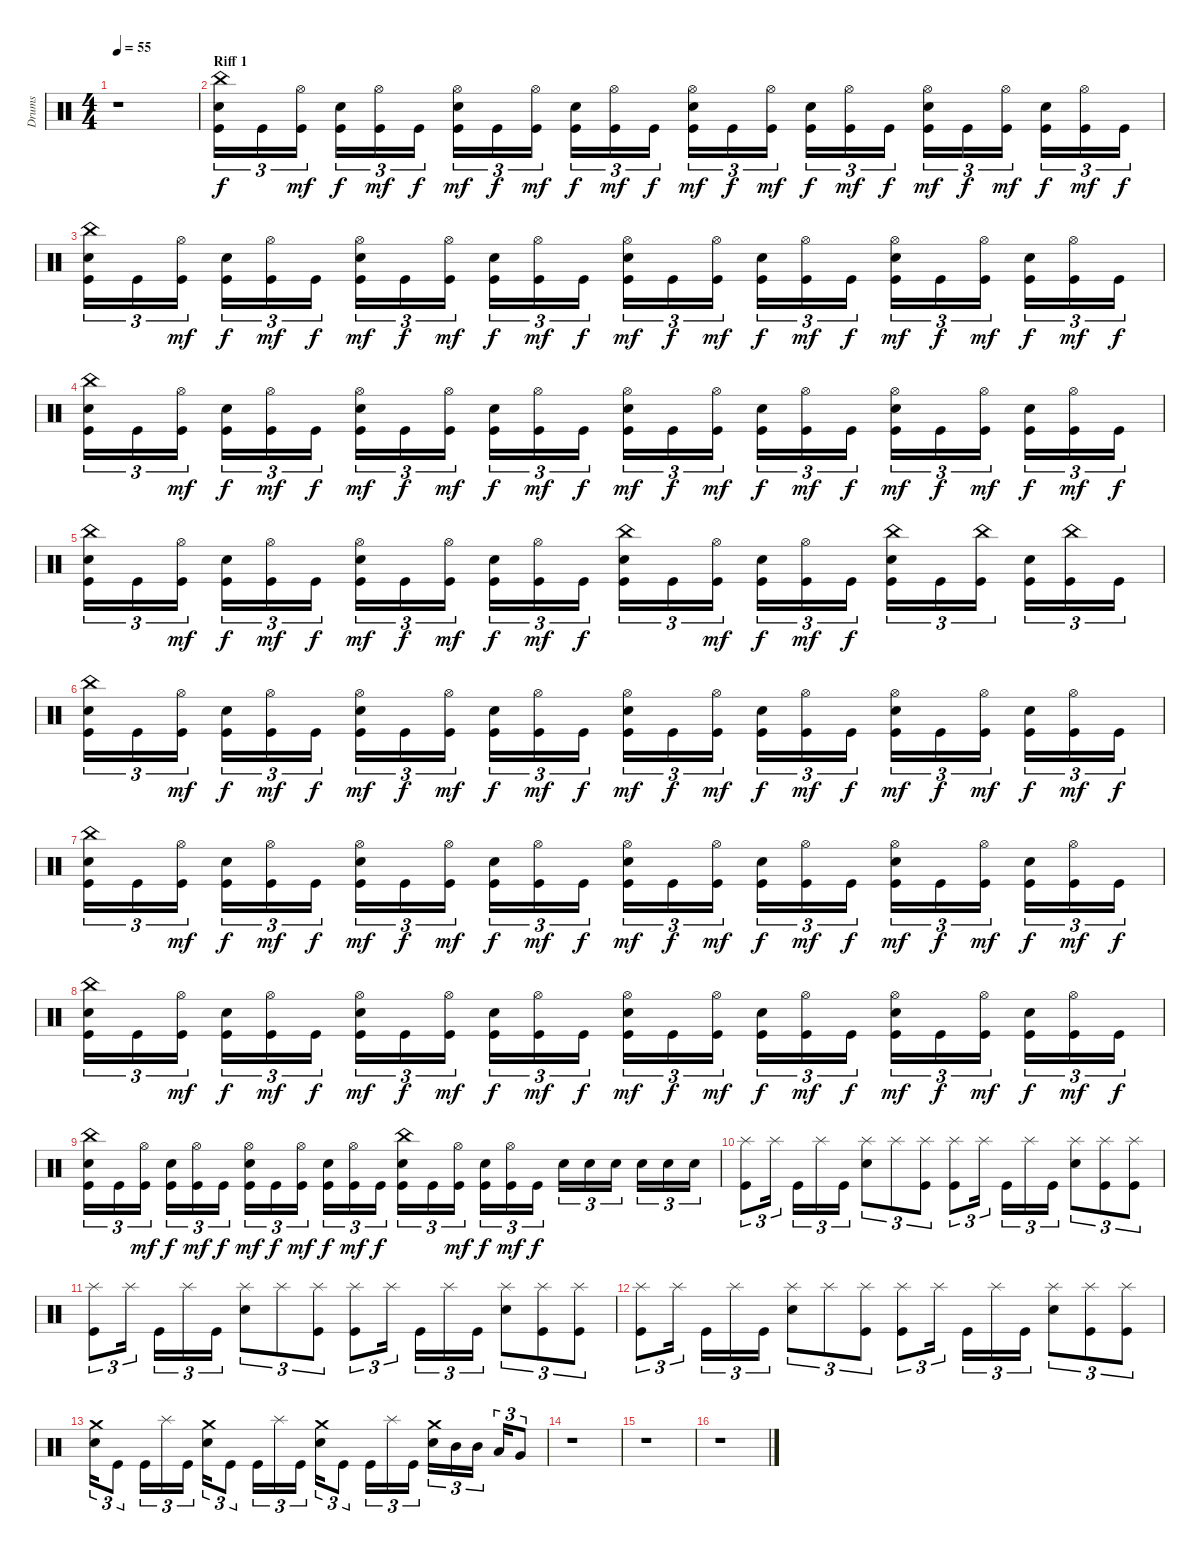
\track ("Drums" "Drums") {instrument percussion}
\staff {score}
\articulation defaults
\ts (4 4)
\tempo 55
\clef neutral
\ks c
r.1{dy f} |
\section ("" "Riff 1")
("China (hit)" "Electric Snare (hit)" "Kick (hit)").16{tu (3 2)} "Kick (hit)".16{tu (3 2)} ("Hi-Hat (open)" "Kick (hit)").16{tu (3 2) dy mf} ("Electric Snare (hit)" "Kick (hit)").16{tu (3 2) dy f} ("Hi-Hat (open)" "Kick (hit)").16{tu (3 2) dy mf} "Kick (hit)".16{tu (3 2) dy f} ("Hi-Hat (open)" "Electric Snare (hit)" "Kick (hit)").16{tu (3 2) dy mf} "Kick (hit)".16{tu (3 2) dy f} ("Hi-Hat (open)" "Kick (hit)").16{tu (3 2) dy mf} ("Electric Snare (hit)" "Kick (hit)").16{tu (3 2) dy f} ("Hi-Hat (open)" "Kick (hit)").16{tu (3 2) dy mf} "Kick (hit)".16{tu (3 2) dy f} ("Hi-Hat (open)" "Electric Snare (hit)" "Kick (hit)").16{tu (3 2) dy mf} "Kick (hit)".16{tu (3 2) dy f} ("Hi-Hat (open)" "Kick (hit)").16{tu (3 2) dy mf} ("Electric Snare (hit)" "Kick (hit)").16{tu (3 2) dy f} ("Hi-Hat (open)" "Kick (hit)").16{tu (3 2) dy mf} "Kick (hit)".16{tu (3 2) dy f} ("Hi-Hat (open)" "Electric Snare (hit)" "Kick (hit)").16{tu (3 2) dy mf} "Kick (hit)".16{tu (3 2) dy f} ("Hi-Hat (open)" "Kick (hit)").16{tu (3 2) dy mf} ("Electric Snare (hit)" "Kick (hit)").16{tu (3 2) dy f} ("Hi-Hat (open)" "Kick (hit)").16{tu (3 2) dy mf} "Kick (hit)".16{tu (3 2) dy f} |
("China (hit)" "Electric Snare (hit)" "Kick (hit)").16{tu (3 2)} "Kick (hit)".16{tu (3 2)} ("Hi-Hat (open)" "Kick (hit)").16{tu (3 2) dy mf} ("Electric Snare (hit)" "Kick (hit)").16{tu (3 2) dy f} ("Hi-Hat (open)" "Kick (hit)").16{tu (3 2) dy mf} "Kick (hit)".16{tu (3 2) dy f} ("Hi-Hat (open)" "Electric Snare (hit)" "Kick (hit)").16{tu (3 2) dy mf} "Kick (hit)".16{tu (3 2) dy f} ("Hi-Hat (open)" "Kick (hit)").16{tu (3 2) dy mf} ("Electric Snare (hit)" "Kick (hit)").16{tu (3 2) dy f} ("Hi-Hat (open)" "Kick (hit)").16{tu (3 2) dy mf} "Kick (hit)".16{tu (3 2) dy f} ("Hi-Hat (open)" "Electric Snare (hit)" "Kick (hit)").16{tu (3 2) dy mf} "Kick (hit)".16{tu (3 2) dy f} ("Hi-Hat (open)" "Kick (hit)").16{tu (3 2) dy mf} ("Electric Snare (hit)" "Kick (hit)").16{tu (3 2) dy f} ("Hi-Hat (open)" "Kick (hit)").16{tu (3 2) dy mf} "Kick (hit)".16{tu (3 2) dy f} ("Hi-Hat (open)" "Electric Snare (hit)" "Kick (hit)").16{tu (3 2) dy mf} "Kick (hit)".16{tu (3 2) dy f} ("Hi-Hat (open)" "Kick (hit)").16{tu (3 2) dy mf} ("Electric Snare (hit)" "Kick (hit)").16{tu (3 2) dy f} ("Hi-Hat (open)" "Kick (hit)").16{tu (3 2) dy mf} "Kick (hit)".16{tu (3 2) dy f} |
("China (hit)" "Electric Snare (hit)" "Kick (hit)").16{tu (3 2)} "Kick (hit)".16{tu (3 2)} ("Hi-Hat (open)" "Kick (hit)").16{tu (3 2) dy mf} ("Electric Snare (hit)" "Kick (hit)").16{tu (3 2) dy f} ("Hi-Hat (open)" "Kick (hit)").16{tu (3 2) dy mf} "Kick (hit)".16{tu (3 2) dy f} ("Hi-Hat (open)" "Electric Snare (hit)" "Kick (hit)").16{tu (3 2) dy mf} "Kick (hit)".16{tu (3 2) dy f} ("Hi-Hat (open)" "Kick (hit)").16{tu (3 2) dy mf} ("Electric Snare (hit)" "Kick (hit)").16{tu (3 2) dy f} ("Hi-Hat (open)" "Kick (hit)").16{tu (3 2) dy mf} "Kick (hit)".16{tu (3 2) dy f} ("Hi-Hat (open)" "Electric Snare (hit)" "Kick (hit)").16{tu (3 2) dy mf} "Kick (hit)".16{tu (3 2) dy f} ("Hi-Hat (open)" "Kick (hit)").16{tu (3 2) dy mf} ("Electric Snare (hit)" "Kick (hit)").16{tu (3 2) dy f} ("Hi-Hat (open)" "Kick (hit)").16{tu (3 2) dy mf} "Kick (hit)".16{tu (3 2) dy f} ("Hi-Hat (open)" "Electric Snare (hit)" "Kick (hit)").16{tu (3 2) dy mf} "Kick (hit)".16{tu (3 2) dy f} ("Hi-Hat (open)" "Kick (hit)").16{tu (3 2) dy mf} ("Electric Snare (hit)" "Kick (hit)").16{tu (3 2) dy f} ("Hi-Hat (open)" "Kick (hit)").16{tu (3 2) dy mf} "Kick (hit)".16{tu (3 2) dy f} |
("China (hit)" "Electric Snare (hit)" "Kick (hit)").16{tu (3 2)} "Kick (hit)".16{tu (3 2)} ("Hi-Hat (open)" "Kick (hit)").16{tu (3 2) dy mf} ("Electric Snare (hit)" "Kick (hit)").16{tu (3 2) dy f} ("Hi-Hat (open)" "Kick (hit)").16{tu (3 2) dy mf} "Kick (hit)".16{tu (3 2) dy f} ("Hi-Hat (open)" "Electric Snare (hit)" "Kick (hit)").16{tu (3 2) dy mf} "Kick (hit)".16{tu (3 2) dy f} ("Hi-Hat (open)" "Kick (hit)").16{tu (3 2) dy mf} ("Electric Snare (hit)" "Kick (hit)").16{tu (3 2) dy f} ("Hi-Hat (open)" "Kick (hit)").16{tu (3 2) dy mf} "Kick (hit)".16{tu (3 2) dy f} ("China (hit)" "Electric Snare (hit)" "Kick (hit)").16{tu (3 2)} "Kick (hit)".16{tu (3 2)} ("Hi-Hat (open)" "Kick (hit)").16{tu (3 2) dy mf} ("Electric Snare (hit)" "Kick (hit)").16{tu (3 2) dy f} ("Hi-Hat (open)" "Kick (hit)").16{tu (3 2) dy mf} "Kick (hit)".16{tu (3 2) dy f} ("China (hit)" "Electric Snare (hit)" "Kick (hit)").16{tu (3 2)} "Kick (hit)".16{tu (3 2)} ("China (hit)" "Kick (hit)").16{tu (3 2)} ("Electric Snare (hit)" "Kick (hit)").16{tu (3 2)} ("China (hit)" "Kick (hit)").16{tu (3 2)} "Kick (hit)".16{tu (3 2)} |
("China (hit)" "Electric Snare (hit)" "Kick (hit)").16{tu (3 2)} "Kick (hit)".16{tu (3 2)} ("Hi-Hat (open)" "Kick (hit)").16{tu (3 2) dy mf} ("Electric Snare (hit)" "Kick (hit)").16{tu (3 2) dy f} ("Hi-Hat (open)" "Kick (hit)").16{tu (3 2) dy mf} "Kick (hit)".16{tu (3 2) dy f} ("Hi-Hat (open)" "Electric Snare (hit)" "Kick (hit)").16{tu (3 2) dy mf} "Kick (hit)".16{tu (3 2) dy f} ("Hi-Hat (open)" "Kick (hit)").16{tu (3 2) dy mf} ("Electric Snare (hit)" "Kick (hit)").16{tu (3 2) dy f} ("Hi-Hat (open)" "Kick (hit)").16{tu (3 2) dy mf} "Kick (hit)".16{tu (3 2) dy f} ("Hi-Hat (open)" "Electric Snare (hit)" "Kick (hit)").16{tu (3 2) dy mf} "Kick (hit)".16{tu (3 2) dy f} ("Hi-Hat (open)" "Kick (hit)").16{tu (3 2) dy mf} ("Electric Snare (hit)" "Kick (hit)").16{tu (3 2) dy f} ("Hi-Hat (open)" "Kick (hit)").16{tu (3 2) dy mf} "Kick (hit)".16{tu (3 2) dy f} ("Hi-Hat (open)" "Electric Snare (hit)" "Kick (hit)").16{tu (3 2) dy mf} "Kick (hit)".16{tu (3 2) dy f} ("Hi-Hat (open)" "Kick (hit)").16{tu (3 2) dy mf} ("Electric Snare (hit)" "Kick (hit)").16{tu (3 2) dy f} ("Hi-Hat (open)" "Kick (hit)").16{tu (3 2) dy mf} "Kick (hit)".16{tu (3 2) dy f} |
("China (hit)" "Electric Snare (hit)" "Kick (hit)").16{tu (3 2)} "Kick (hit)".16{tu (3 2)} ("Hi-Hat (open)" "Kick (hit)").16{tu (3 2) dy mf} ("Electric Snare (hit)" "Kick (hit)").16{tu (3 2) dy f} ("Hi-Hat (open)" "Kick (hit)").16{tu (3 2) dy mf} "Kick (hit)".16{tu (3 2) dy f} ("Hi-Hat (open)" "Electric Snare (hit)" "Kick (hit)").16{tu (3 2) dy mf} "Kick (hit)".16{tu (3 2) dy f} ("Hi-Hat (open)" "Kick (hit)").16{tu (3 2) dy mf} ("Electric Snare (hit)" "Kick (hit)").16{tu (3 2) dy f} ("Hi-Hat (open)" "Kick (hit)").16{tu (3 2) dy mf} "Kick (hit)".16{tu (3 2) dy f} ("Hi-Hat (open)" "Electric Snare (hit)" "Kick (hit)").16{tu (3 2) dy mf} "Kick (hit)".16{tu (3 2) dy f} ("Hi-Hat (open)" "Kick (hit)").16{tu (3 2) dy mf} ("Electric Snare (hit)" "Kick (hit)").16{tu (3 2) dy f} ("Hi-Hat (open)" "Kick (hit)").16{tu (3 2) dy mf} "Kick (hit)".16{tu (3 2) dy f} ("Hi-Hat (open)" "Electric Snare (hit)" "Kick (hit)").16{tu (3 2) dy mf} "Kick (hit)".16{tu (3 2) dy f} ("Hi-Hat (open)" "Kick (hit)").16{tu (3 2) dy mf} ("Electric Snare (hit)" "Kick (hit)").16{tu (3 2) dy f} ("Hi-Hat (open)" "Kick (hit)").16{tu (3 2) dy mf} "Kick (hit)".16{tu (3 2) dy f} |
("China (hit)" "Electric Snare (hit)" "Kick (hit)").16{tu (3 2)} "Kick (hit)".16{tu (3 2)} ("Hi-Hat (open)" "Kick (hit)").16{tu (3 2) dy mf} ("Electric Snare (hit)" "Kick (hit)").16{tu (3 2) dy f} ("Hi-Hat (open)" "Kick (hit)").16{tu (3 2) dy mf} "Kick (hit)".16{tu (3 2) dy f} ("Hi-Hat (open)" "Electric Snare (hit)" "Kick (hit)").16{tu (3 2) dy mf} "Kick (hit)".16{tu (3 2) dy f} ("Hi-Hat (open)" "Kick (hit)").16{tu (3 2) dy mf} ("Electric Snare (hit)" "Kick (hit)").16{tu (3 2) dy f} ("Hi-Hat (open)" "Kick (hit)").16{tu (3 2) dy mf} "Kick (hit)".16{tu (3 2) dy f} ("Hi-Hat (open)" "Electric Snare (hit)" "Kick (hit)").16{tu (3 2) dy mf} "Kick (hit)".16{tu (3 2) dy f} ("Hi-Hat (open)" "Kick (hit)").16{tu (3 2) dy mf} ("Electric Snare (hit)" "Kick (hit)").16{tu (3 2) dy f} ("Hi-Hat (open)" "Kick (hit)").16{tu (3 2) dy mf} "Kick (hit)".16{tu (3 2) dy f} ("Hi-Hat (open)" "Electric Snare (hit)" "Kick (hit)").16{tu (3 2) dy mf} "Kick (hit)".16{tu (3 2) dy f} ("Hi-Hat (open)" "Kick (hit)").16{tu (3 2) dy mf} ("Electric Snare (hit)" "Kick (hit)").16{tu (3 2) dy f} ("Hi-Hat (open)" "Kick (hit)").16{tu (3 2) dy mf} "Kick (hit)".16{tu (3 2) dy f} |
("China (hit)" "Electric Snare (hit)" "Kick (hit)").16{tu (3 2)} "Kick (hit)".16{tu (3 2)} ("Hi-Hat (open)" "Kick (hit)").16{tu (3 2) dy mf} ("Electric Snare (hit)" "Kick (hit)").16{tu (3 2) dy f} ("Hi-Hat (open)" "Kick (hit)").16{tu (3 2) dy mf} "Kick (hit)".16{tu (3 2) dy f} ("Hi-Hat (open)" "Electric Snare (hit)" "Kick (hit)").16{tu (3 2) dy mf} "Kick (hit)".16{tu (3 2) dy f} ("Hi-Hat (open)" "Kick (hit)").16{tu (3 2) dy mf} ("Electric Snare (hit)" "Kick (hit)").16{tu (3 2) dy f} ("Hi-Hat (open)" "Kick (hit)").16{tu (3 2) dy mf} "Kick (hit)".16{tu (3 2) dy f} ("China (hit)" "Electric Snare (hit)" "Kick (hit)").16{tu (3 2)} "Kick (hit)".16{tu (3 2)} ("Hi-Hat (open)" "Kick (hit)").16{tu (3 2) dy mf} ("Electric Snare (hit)" "Kick (hit)").16{tu (3 2) dy f} ("Hi-Hat (open)" "Kick (hit)").16{tu (3 2) dy mf} "Kick (hit)".16{tu (3 2) dy f} "Electric Snare (hit)".16{tu (3 2)} "Electric Snare (hit)".16{tu (3 2)} "Electric Snare (hit)".16{tu (3 2)} "Electric Snare (hit)".16{tu (3 2)} "Electric Snare (hit)".16{tu (3 2)} "Electric Snare (hit)".16{tu (3 2)} |
("Splash (hit)" "Kick (hit)").8{tu (3 2)} "Splash (hit)".16{tu (3 2)} "Kick (hit)".16{tu (3 2)} "Splash (hit)".16{tu (3 2)} "Kick (hit)".16{tu (3 2)} ("Splash (hit)" "Electric Snare (hit)").8{tu (3 2)} "Splash (hit)".8{tu (3 2)} ("Splash (hit)" "Kick (hit)").8{tu (3 2)} ("Splash (hit)" "Kick (hit)").8{tu (3 2)} "Splash (hit)".16{tu (3 2)} "Kick (hit)".16{tu (3 2)} "Splash (hit)".16{tu (3 2)} "Kick (hit)".16{tu (3 2)} ("Splash (hit)" "Electric Snare (hit)").8{tu (3 2)} ("Splash (hit)" "Kick (hit)").8{tu (3 2)} ("Splash (hit)" "Kick (hit)").8{tu (3 2)} |
("Splash (hit)" "Kick (hit)").8{tu (3 2)} "Splash (hit)".16{tu (3 2)} "Kick (hit)".16{tu (3 2)} "Splash (hit)".16{tu (3 2)} "Kick (hit)".16{tu (3 2)} ("Splash (hit)" "Electric Snare (hit)").8{tu (3 2)} "Splash (hit)".8{tu (3 2)} ("Splash (hit)" "Kick (hit)").8{tu (3 2)} ("Splash (hit)" "Kick (hit)").8{tu (3 2)} "Splash (hit)".16{tu (3 2)} "Kick (hit)".16{tu (3 2)} "Splash (hit)".16{tu (3 2)} "Kick (hit)".16{tu (3 2)} ("Splash (hit)" "Electric Snare (hit)").8{tu (3 2)} ("Splash (hit)" "Kick (hit)").8{tu (3 2)} ("Splash (hit)" "Kick (hit)").8{tu (3 2)} |
("Splash (hit)" "Kick (hit)").8{tu (3 2)} "Splash (hit)".16{tu (3 2)} "Kick (hit)".16{tu (3 2)} "Splash (hit)".16{tu (3 2)} "Kick (hit)".16{tu (3 2)} ("Splash (hit)" "Electric Snare (hit)").8{tu (3 2)} "Splash (hit)".8{tu (3 2)} ("Splash (hit)" "Kick (hit)").8{tu (3 2)} ("Splash (hit)" "Kick (hit)").8{tu (3 2)} "Splash (hit)".16{tu (3 2)} "Kick (hit)".16{tu (3 2)} "Splash (hit)".16{tu (3 2)} "Kick (hit)".16{tu (3 2)} ("Splash (hit)" "Electric Snare (hit)").8{tu (3 2)} ("Splash (hit)" "Kick (hit)").8{tu (3 2)} ("Splash (hit)" "Kick (hit)").8{tu (3 2)} |
("Crash medium (hit)" "Electric Snare (hit)").16{tu (3 2)} "Kick (hit)".8{tu (3 2)} "Kick (hit)".16{tu (3 2)} "Splash (hit)".16{tu (3 2)} "Kick (hit)".16{tu (3 2)} ("Crash medium (hit)" "Electric Snare (hit)").16{tu (3 2)} "Kick (hit)".8{tu (3 2)} "Kick (hit)".16{tu (3 2)} "Splash (hit)".16{tu (3 2)} "Kick (hit)".16{tu (3 2)} ("Crash medium (hit)" "Electric Snare (hit)").16{tu (3 2)} "Kick (hit)".8{tu (3 2)} "Kick (hit)".16{tu (3 2)} "Splash (hit)".16{tu (3 2)} "Kick (hit)".16{tu (3 2)} ("Crash medium (hit)" "Electric Snare (hit)").16{tu (3 2)} "Mid Tom (hit)".16{tu (3 2)} "Mid Tom (hit)".16{tu (3 2)} "Low Tom (hit)".16{tu (3 2)} "Very Low Tom (hit)".8{tu (3 2)} |
r.1 |
r.1 |
r.1
